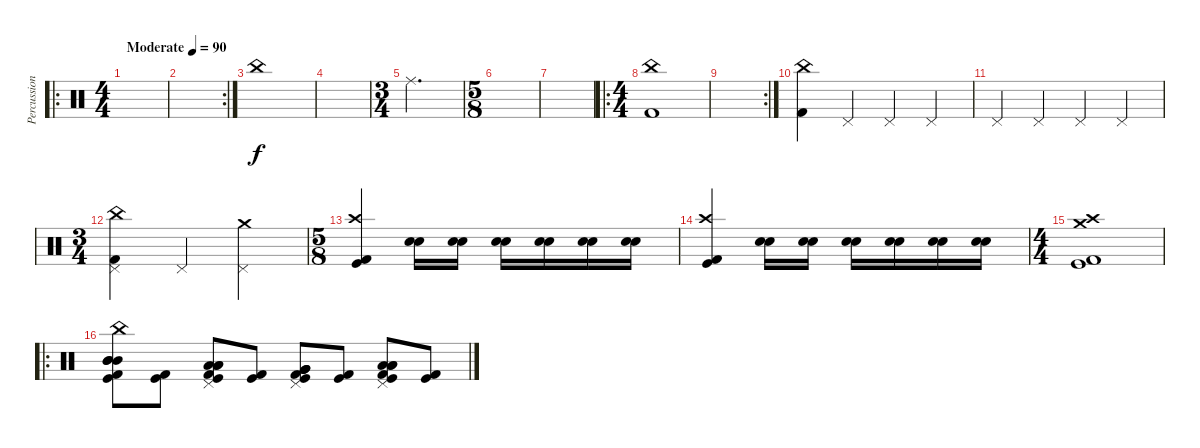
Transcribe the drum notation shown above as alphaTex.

\track ("Percussion" "Percussion") {instrument percussion}
\staff {score}
\articulation defaults
\ro
\ts (4 4)
\tempo (90 "Moderate")
\clef neutral
\ks c
|
\rc 2
|
"China (hit)".1 |
|
\ts (3 4)
"Ride (middle)".2{d} |
\ts (5 8)
|
|
\ro
\ts (4 4)
("China (hit)" "Kick (hit) 2").1 |
\rc 2
|
("China (hit)" "Kick (hit) 2").4 "Pedal Hi-Hat (hit)".4 "Pedal Hi-Hat (hit)".4 "Pedal Hi-Hat (hit)".4 |
"Pedal Hi-Hat (hit)".4 "Pedal Hi-Hat (hit)".4 "Pedal Hi-Hat (hit)".4 "Pedal Hi-Hat (hit)".4 |
\ts (3 4)
("China (hit)" "Pedal Hi-Hat (hit)" "Kick (hit) 2").4 "Pedal Hi-Hat (hit)".4 ("Crash medium (hit)" "Pedal Hi-Hat (hit)").4 |
\ts (5 8)
("Crash high (hit)" "Kick (hit)" "Kick (hit) 2").4 ("Electric Snare (hit)" "Snare (hit) 2").16 ("Electric Snare (hit)" "Snare (hit) 2").16 ("Electric Snare (hit)" "Snare (hit) 2").16 ("Electric Snare (hit)" "Snare (hit) 2").16 ("Electric Snare (hit)" "Snare (hit) 2").16 ("Electric Snare (hit)" "Snare (hit) 2").16 |
("Crash high (hit)" "Kick (hit)" "Kick (hit) 2").4 ("Electric Snare (hit)" "Snare (hit) 2").16 ("Electric Snare (hit)" "Snare (hit) 2").16 ("Electric Snare (hit)" "Snare (hit) 2").16 ("Electric Snare (hit)" "Snare (hit) 2").16 ("Electric Snare (hit)" "Snare (hit) 2").16 ("Electric Snare (hit)" "Snare (hit) 2").16 |
\ts (4 4)
("Crash medium (hit)" "Crash high (hit)" "Kick (hit)" "Kick (hit) 2").1 |
\ro
("China (hit)" "Mid Tom (hit)" "Mid Tom (hit)" "Mid Tom (hit)" "Kick (hit)" "Kick (hit) 2").8 ("Kick (hit)" "Kick (hit) 2").8 ("Low Tom (hit)" "Pedal Hi-Hat (hit)" "Low Tom (hit)" "Low Tom (hit)" "Kick (hit)" "Kick (hit) 2").8 ("Kick (hit)" "Kick (hit) 2").8 ("Very Low Tom (hit)" "Pedal Hi-Hat (hit)" "Very Low Tom (hit)" "Very Low Tom (hit)" "Kick (hit)" "Kick (hit) 2").8 ("Kick (hit)" "Kick (hit) 2").8 ("Low Floor Tom (hit)" "Pedal Hi-Hat (hit)" "Low Floor Tom (hit)" "Low Floor Tom (hit)" "Kick (hit)" "Kick (hit) 2").8 ("Kick (hit)" "Kick (hit) 2").8
